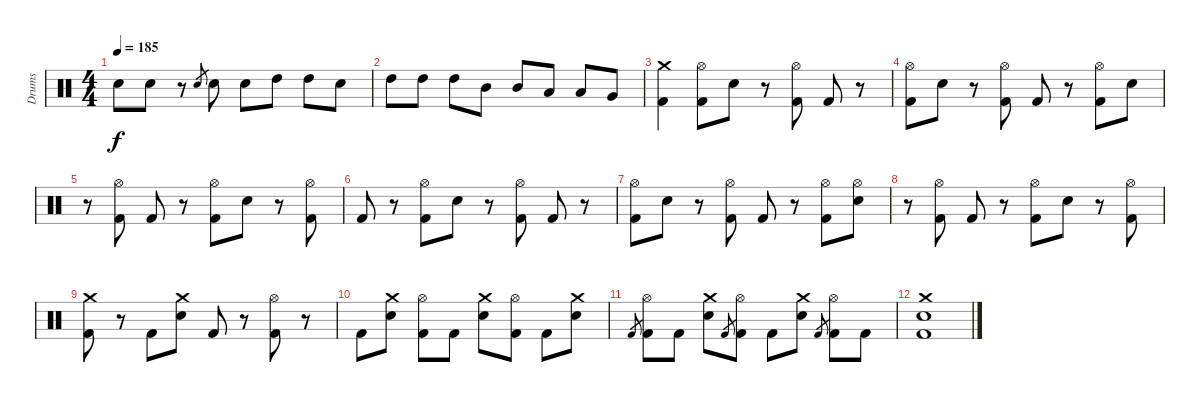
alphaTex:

\track ("Drums" "Drums") {instrument percussion}
\staff {score}
\articulation defaults
\ts (4 4)
\tempo 185
\clef neutral
\ks c "Electric Snare (hit)".8{dy f} "Electric Snare (hit)".8
r.8 "Electric Snare (hit)".8{gr} "Electric Snare (hit)".8 "Electric Snare (hit)".8 "High Tom (hit)".8 "High Tom (hit)".8 "Electric Snare (hit)".8 |
"High Tom (hit)".8 "High Tom (hit)".8 "High Tom (hit)".8 "Mid Tom (hit)".8 "Mid Tom (hit)".8 "Low Tom (hit)".8 "Low Tom (hit)".8 "Very Low Tom (hit)".8 |
("Crash medium (hit)" "Kick (hit) 2").4 ("Hi-Hat (open)" "Kick (hit) 2").8 "Electric Snare (hit)".8 r.8 ("Hi-Hat (open)" "Kick (hit) 2").8 "Kick (hit) 2".8 r.8 |
("Hi-Hat (open)" "Kick (hit) 2").8 "Electric Snare (hit)".8 r.8 ("Hi-Hat (open)" "Kick (hit) 2").8 "Kick (hit) 2".8 r.8 ("Hi-Hat (open)" "Kick (hit) 2").8 "Electric Snare (hit)".8 |
r.8 ("Hi-Hat (open)" "Kick (hit) 2").8 "Kick (hit) 2".8 r.8 ("Hi-Hat (open)" "Kick (hit) 2").8 "Electric Snare (hit)".8 r.8 ("Hi-Hat (open)" "Kick (hit) 2").8 |
"Kick (hit) 2".8 r.8 ("Hi-Hat (open)" "Kick (hit) 2").8 "Electric Snare (hit)".8 r.8 ("Hi-Hat (open)" "Kick (hit) 2").8 "Kick (hit) 2".8 r.8 |
("Hi-Hat (open)" "Kick (hit) 2").8 "Electric Snare (hit)".8 r.8 ("Hi-Hat (open)" "Kick (hit) 2").8 "Kick (hit) 2".8 r.8 ("Hi-Hat (open)" "Kick (hit) 2").8 ("Hi-Hat (open)" "Electric Snare (hit)").8 |
r.8 ("Hi-Hat (open)" "Kick (hit) 2").8 "Kick (hit) 2".8 r.8 ("Hi-Hat (open)" "Kick (hit) 2").8 "Electric Snare (hit)".8 r.8 ("Hi-Hat (open)" "Kick (hit) 2").8 |
("Crash medium (hit)" "Kick (hit) 2").8 r.8 "Kick (hit) 2".8 ("Crash medium (hit)" "Electric Snare (hit)").8 "Kick (hit) 2".8 r.8 ("Hi-Hat (open)" "Kick (hit) 2").8 r.8 |
"Kick (hit) 2".8 ("Crash medium (hit)" "Electric Snare (hit)").8 ("Hi-Hat (open)" "Kick (hit) 2").8 "Kick (hit) 2".8 ("Crash medium (hit)" "Electric Snare (hit)").8 ("Hi-Hat (open)" "Kick (hit) 2").8 "Kick (hit) 2".8 ("Crash medium (hit)" "Electric Snare (hit)").8 |
"Kick (hit) 2".8{gr} ("Hi-Hat (open)" "Kick (hit) 2").8 "Kick (hit) 2".8 ("Crash medium (hit)" "Electric Snare (hit)").8 "Kick (hit) 2".8{gr} ("Hi-Hat (open)" "Kick (hit) 2").8 "Kick (hit) 2".8 ("Crash medium (hit)" "Electric Snare (hit)").8 "Kick (hit) 2".8{gr} ("Hi-Hat (open)" "Kick (hit) 2").8 "Kick (hit) 2".8 |
("Crash medium (hit)" "Electric Snare (hit)" "Kick (hit) 2").1
